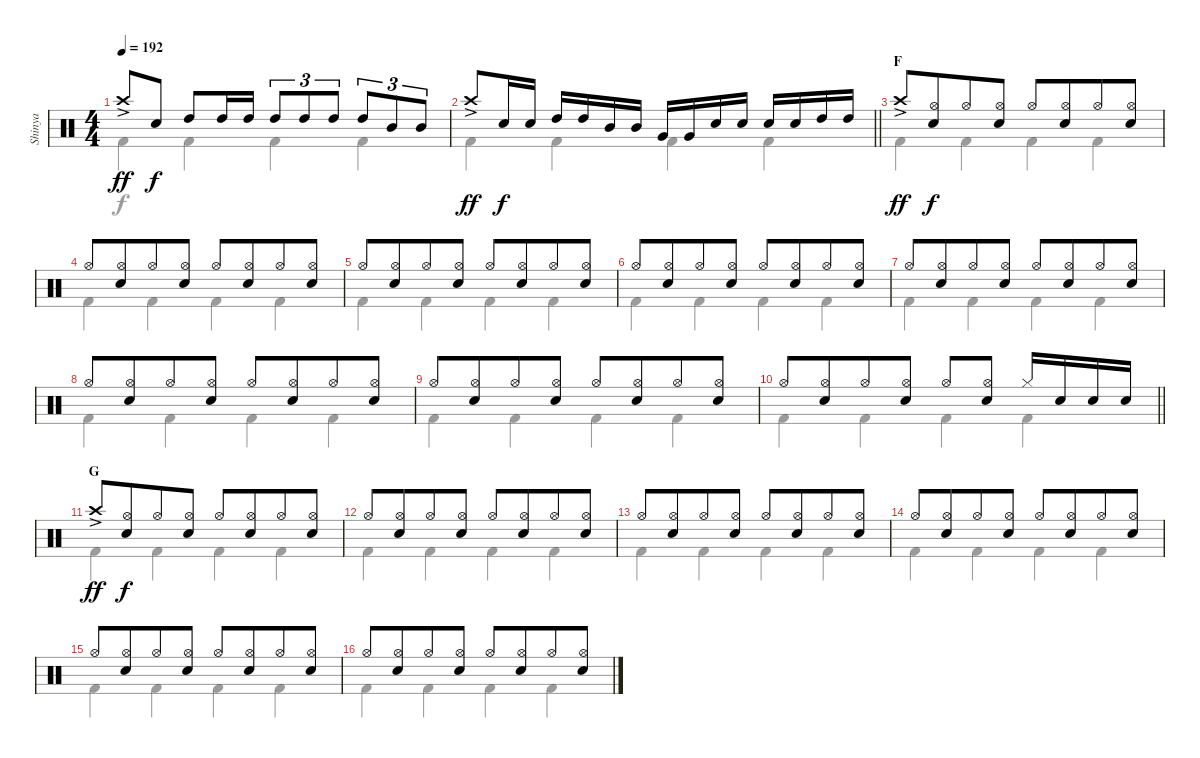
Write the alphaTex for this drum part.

\track ("Shinya" "Shinya") {instrument percussion}
\staff {score}
\articulation defaults
\voice
\ts (4 4)
\tempo 192
\clef neutral
\ks c "Crash high (hit)"{ac}.8{dy ff} "Snare (hit) 2".8{dy f} "High Tom (hit)".8 "High Tom (hit)".16 "High Tom (hit)".16 "High Tom (hit)".8{tu (3 2)} "High Tom (hit)".8{tu (3 2)} "High Tom (hit)".8{tu (3 2)} "High Tom (hit)".8{tu (3 2)} "Mid Tom (hit)".8{tu (3 2)} "Mid Tom (hit)".8{tu (3 2)}
|
\barLineRight lightlight "Crash high (hit)"{ac}.8{dy ff} "Snare (hit) 2".16{dy f} "Snare (hit) 2".16 "High Tom (hit)".16 "High Tom (hit)".16 "Mid Tom (hit)".16 "Mid Tom (hit)".16 "Very Low Tom (hit)".16 "Very Low Tom (hit)".16 "Snare (hit) 2".16 "Snare (hit) 2".16 "Snare (hit) 2".16 "Snare (hit) 2".16 "High Tom (hit)".16 "High Tom (hit)".16
|
\section ("" "F")
"Crash high (hit)"{ac}.8{dy ff} ("Hi-Hat (open)" "Snare (hit) 2").8{dy f beam merge} "Hi-Hat (open)".8 ("Hi-Hat (open)" "Snare (hit) 2").8 "Hi-Hat (open)".8 ("Hi-Hat (open)" "Snare (hit) 2").8{beam merge} "Hi-Hat (open)".8 ("Hi-Hat (open)" "Snare (hit) 2").8 |
"Hi-Hat (open)".8 ("Hi-Hat (open)" "Snare (hit) 2").8{beam merge} "Hi-Hat (open)".8 ("Hi-Hat (open)" "Snare (hit) 2").8 "Hi-Hat (open)".8 ("Hi-Hat (open)" "Snare (hit) 2").8{beam merge} "Hi-Hat (open)".8 ("Hi-Hat (open)" "Snare (hit) 2").8 |
"Hi-Hat (open)".8 ("Hi-Hat (open)" "Snare (hit) 2").8{beam merge} "Hi-Hat (open)".8 ("Hi-Hat (open)" "Snare (hit) 2").8 "Hi-Hat (open)".8 ("Hi-Hat (open)" "Snare (hit) 2").8{beam merge} "Hi-Hat (open)".8 ("Hi-Hat (open)" "Snare (hit) 2").8 |
"Hi-Hat (open)".8 ("Hi-Hat (open)" "Snare (hit) 2").8{beam merge} "Hi-Hat (open)".8 ("Hi-Hat (open)" "Snare (hit) 2").8 "Hi-Hat (open)".8 ("Hi-Hat (open)" "Snare (hit) 2").8{beam merge} "Hi-Hat (open)".8 ("Hi-Hat (open)" "Snare (hit) 2").8 |
"Hi-Hat (open)".8 ("Hi-Hat (open)" "Snare (hit) 2").8{beam merge} "Hi-Hat (open)".8 ("Hi-Hat (open)" "Snare (hit) 2").8 "Hi-Hat (open)".8 ("Hi-Hat (open)" "Snare (hit) 2").8{beam merge} "Hi-Hat (open)".8 ("Hi-Hat (open)" "Snare (hit) 2").8 |
"Hi-Hat (open)".8 ("Hi-Hat (open)" "Snare (hit) 2").8{beam merge} "Hi-Hat (open)".8 ("Hi-Hat (open)" "Snare (hit) 2").8 "Hi-Hat (open)".8 ("Hi-Hat (open)" "Snare (hit) 2").8{beam merge} "Hi-Hat (open)".8 ("Hi-Hat (open)" "Snare (hit) 2").8 |
"Hi-Hat (open)".8 ("Hi-Hat (open)" "Snare (hit) 2").8{beam merge} "Hi-Hat (open)".8 ("Hi-Hat (open)" "Snare (hit) 2").8 "Hi-Hat (open)".8 ("Hi-Hat (open)" "Snare (hit) 2").8{beam merge} "Hi-Hat (open)".8 ("Hi-Hat (open)" "Snare (hit) 2").8 |
\barLineRight lightlight "Hi-Hat (open)".8
("Hi-Hat (open)" "Snare (hit) 2").8{beam merge} "Hi-Hat (open)".8 ("Hi-Hat (open)" "Snare (hit) 2").8 "Hi-Hat (open)".8 ("Hi-Hat (open)" "Snare (hit) 2").8 "Hi-Hat (closed)".16 "Snare (hit) 2".16 "Snare (hit) 2".16 "Snare (hit) 2".16 |
\section ("" "G")
"Crash high (hit)"{ac}.8{dy ff} ("Hi-Hat (open)" "Snare (hit) 2").8{dy f beam merge} "Hi-Hat (open)".8 ("Hi-Hat (open)" "Snare (hit) 2").8 "Hi-Hat (open)".8 ("Hi-Hat (open)" "Snare (hit) 2").8{beam merge} "Hi-Hat (open)".8 ("Hi-Hat (open)" "Snare (hit) 2").8 |
"Hi-Hat (open)".8 ("Hi-Hat (open)" "Snare (hit) 2").8{beam merge} "Hi-Hat (open)".8 ("Hi-Hat (open)" "Snare (hit) 2").8 "Hi-Hat (open)".8 ("Hi-Hat (open)" "Snare (hit) 2").8{beam merge} "Hi-Hat (open)".8 ("Hi-Hat (open)" "Snare (hit) 2").8 |
"Hi-Hat (open)".8 ("Hi-Hat (open)" "Snare (hit) 2").8{beam merge} "Hi-Hat (open)".8 ("Hi-Hat (open)" "Snare (hit) 2").8 "Hi-Hat (open)".8 ("Hi-Hat (open)" "Snare (hit) 2").8{beam merge} "Hi-Hat (open)".8 ("Hi-Hat (open)" "Snare (hit) 2").8 |
"Hi-Hat (open)".8 ("Hi-Hat (open)" "Snare (hit) 2").8{beam merge} "Hi-Hat (open)".8 ("Hi-Hat (open)" "Snare (hit) 2").8 "Hi-Hat (open)".8 ("Hi-Hat (open)" "Snare (hit) 2").8{beam merge} "Hi-Hat (open)".8 ("Hi-Hat (open)" "Snare (hit) 2").8 |
"Hi-Hat (open)".8 ("Hi-Hat (open)" "Snare (hit) 2").8{beam merge} "Hi-Hat (open)".8 ("Hi-Hat (open)" "Snare (hit) 2").8 "Hi-Hat (open)".8 ("Hi-Hat (open)" "Snare (hit) 2").8{beam merge} "Hi-Hat (open)".8 ("Hi-Hat (open)" "Snare (hit) 2").8 |
"Hi-Hat (open)".8 ("Hi-Hat (open)" "Snare (hit) 2").8{beam merge} "Hi-Hat (open)".8 ("Hi-Hat (open)" "Snare (hit) 2").8 "Hi-Hat (open)".8 ("Hi-Hat (open)" "Snare (hit) 2").8{beam merge} "Hi-Hat (open)".8 ("Hi-Hat (open)" "Snare (hit) 2").8
\voice
\clef neutral
\ottava regular
\simile none
\ks c "Kick (hit) 2".4{dy f} "Kick (hit) 2".4 "Kick (hit) 2".4 "Kick (hit) 2".4
|
\barLineRight lightlight "Kick (hit) 2".4 "Kick (hit) 2".4 "Kick (hit) 2".4 "Kick (hit) 2".4
|
"Kick (hit) 2".4 "Kick (hit) 2".4 "Kick (hit) 2".4 "Kick (hit) 2".4 |
"Kick (hit) 2".4 "Kick (hit) 2".4 "Kick (hit) 2".4 "Kick (hit) 2".4 |
"Kick (hit) 2".4 "Kick (hit) 2".4 "Kick (hit) 2".4 "Kick (hit) 2".4 |
"Kick (hit) 2".4 "Kick (hit) 2".4 "Kick (hit) 2".4 "Kick (hit) 2".4 |
"Kick (hit) 2".4 "Kick (hit) 2".4 "Kick (hit) 2".4 "Kick (hit) 2".4 |
"Kick (hit) 2".4 "Kick (hit) 2".4 "Kick (hit) 2".4 "Kick (hit) 2".4 |
"Kick (hit) 2".4 "Kick (hit) 2".4 "Kick (hit) 2".4 "Kick (hit) 2".4 |
\barLineRight lightlight "Kick (hit) 2".4 "Kick (hit) 2".4 "Kick (hit) 2".4 "Kick (hit) 2".4
|
"Kick (hit) 2".4 "Kick (hit) 2".4 "Kick (hit) 2".4 "Kick (hit) 2".4 |
"Kick (hit) 2".4 "Kick (hit) 2".4 "Kick (hit) 2".4 "Kick (hit) 2".4 |
"Kick (hit) 2".4 "Kick (hit) 2".4 "Kick (hit) 2".4 "Kick (hit) 2".4 |
"Kick (hit) 2".4 "Kick (hit) 2".4 "Kick (hit) 2".4 "Kick (hit) 2".4 |
"Kick (hit) 2".4 "Kick (hit) 2".4 "Kick (hit) 2".4 "Kick (hit) 2".4 |
"Kick (hit) 2".4 "Kick (hit) 2".4 "Kick (hit) 2".4 "Kick (hit) 2".4
